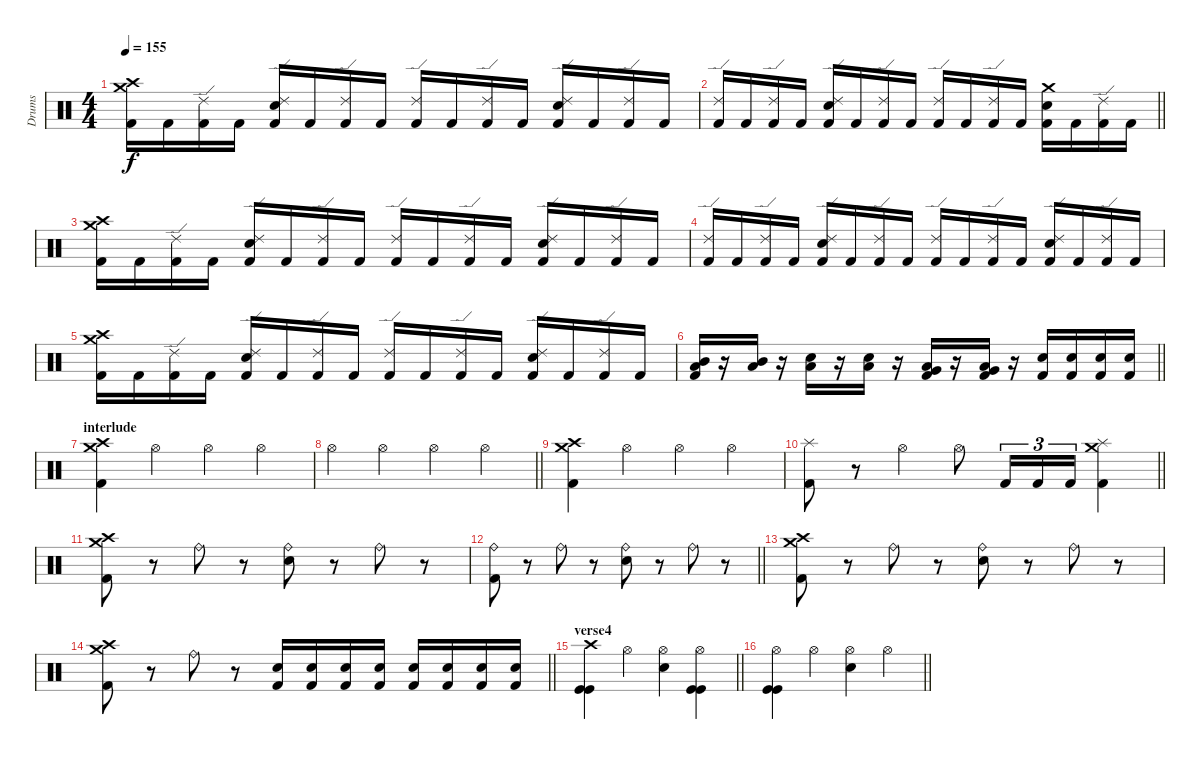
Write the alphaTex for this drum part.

\track ("Drums" "Drums") {instrument percussion}
\staff {score}
\articulation defaults
\ts (4 4)
\tempo 155
\clef neutral
\ks c
("Crash high (hit)" "Crash medium (hit)" "Kick (hit) 2").16{dy f} "Kick (hit) 2".16 ("Ride (edge) 2" "Kick (hit) 2").16 "Kick (hit) 2".16 ("Ride (edge) 2" "Electric Snare (hit)" "Kick (hit) 2").16 "Kick (hit) 2".16 ("Ride (edge) 2" "Kick (hit) 2").16 "Kick (hit) 2".16 ("Ride (edge) 2" "Kick (hit) 2").16 "Kick (hit) 2".16 ("Ride (edge) 2" "Kick (hit) 2").16 "Kick (hit) 2".16 ("Ride (edge) 2" "Electric Snare (hit)" "Kick (hit) 2").16 "Kick (hit) 2".16 ("Ride (edge) 2" "Kick (hit) 2").16 "Kick (hit) 2".16 |
\barLineRight lightlight
("Ride (edge) 2" "Kick (hit) 2").16 "Kick (hit) 2".16 ("Ride (edge) 2" "Kick (hit) 2").16 "Kick (hit) 2".16 ("Ride (edge) 2" "Electric Snare (hit)" "Kick (hit) 2").16 "Kick (hit) 2".16 ("Ride (edge) 2" "Kick (hit) 2").16 "Kick (hit) 2".16 ("Ride (edge) 2" "Kick (hit) 2").16 "Kick (hit) 2".16 ("Ride (edge) 2" "Kick (hit) 2").16 "Kick (hit) 2".16 ("Crash medium (hit)" "Electric Snare (hit)" "Kick (hit) 2").16 "Kick (hit) 2".16 ("Ride (edge) 2" "Kick (hit) 2").16 "Kick (hit) 2".16 |
("Crash high (hit)" "Crash medium (hit)" "Kick (hit) 2").16 "Kick (hit) 2".16 ("Ride (edge) 2" "Kick (hit) 2").16 "Kick (hit) 2".16 ("Ride (edge) 2" "Electric Snare (hit)" "Kick (hit) 2").16 "Kick (hit) 2".16 ("Ride (edge) 2" "Kick (hit) 2").16 "Kick (hit) 2".16 ("Ride (edge) 2" "Kick (hit) 2").16 "Kick (hit) 2".16 ("Ride (edge) 2" "Kick (hit) 2").16 "Kick (hit) 2".16 ("Ride (edge) 2" "Electric Snare (hit)" "Kick (hit) 2").16 "Kick (hit) 2".16 ("Ride (edge) 2" "Kick (hit) 2").16 "Kick (hit) 2".16 |
("Ride (edge) 2" "Kick (hit) 2").16 "Kick (hit) 2".16 ("Ride (edge) 2" "Kick (hit) 2").16 "Kick (hit) 2".16 ("Ride (edge) 2" "Electric Snare (hit)" "Kick (hit) 2").16 "Kick (hit) 2".16 ("Ride (edge) 2" "Kick (hit) 2").16 "Kick (hit) 2".16 ("Ride (edge) 2" "Kick (hit) 2").16 "Kick (hit) 2".16 ("Ride (edge) 2" "Kick (hit) 2").16 "Kick (hit) 2".16 ("Ride (edge) 2" "Electric Snare (hit)" "Kick (hit) 2").16 "Kick (hit) 2".16 ("Ride (edge) 2" "Kick (hit) 2").16 "Kick (hit) 2".16 |
("Crash high (hit)" "Crash medium (hit)" "Kick (hit) 2").16 "Kick (hit) 2".16 ("Ride (edge) 2" "Kick (hit) 2").16 "Kick (hit) 2".16 ("Ride (edge) 2" "Electric Snare (hit)" "Kick (hit) 2").16 "Kick (hit) 2".16 ("Ride (edge) 2" "Kick (hit) 2").16 "Kick (hit) 2".16 ("Ride (edge) 2" "Kick (hit) 2").16 "Kick (hit) 2".16 ("Ride (edge) 2" "Kick (hit) 2").16 "Kick (hit) 2".16 ("Ride (edge) 2" "Electric Snare (hit)" "Kick (hit) 2").16 "Kick (hit) 2".16 ("Ride (edge) 2" "Kick (hit) 2").16 "Kick (hit) 2".16 |
\barLineRight lightlight
("Mid Tom (hit)" "Low Tom (hit)" "Kick (hit) 2").16 r.16 ("Mid Tom (hit)" "Low Tom (hit)").16 r.16 ("Low Tom (hit)" "Electric Snare (hit)").16 r.16 ("Low Tom (hit)" "Electric Snare (hit)").16 r.16 ("Low Tom (hit)" "Very Low Tom (hit)" "Kick (hit) 2").16 r.16 ("Low Tom (hit)" "Very Low Tom (hit)" "Kick (hit) 2").16 r.16 ("Electric Snare (hit)" "Kick (hit) 2").16 ("Electric Snare (hit)" "Kick (hit) 2").16 ("Electric Snare (hit)" "Kick (hit) 2").16 ("Electric Snare (hit)" "Kick (hit) 2").16 |
\section ("" "interlude")
("Crash medium (hit)" "Crash high (hit)" "Kick (hit) 2").4 "Hi-Hat (open)".4 "Hi-Hat (open)".4 "Hi-Hat (open)".4 |
\barLineRight lightlight "Hi-Hat (open)".4 "Hi-Hat (open)".4 "Hi-Hat (open)".4 "Hi-Hat (open)".4
|
("Crash medium (hit)" "Crash high (hit)" "Kick (hit) 2").4 "Hi-Hat (open)".4 "Hi-Hat (open)".4 "Hi-Hat (open)".4 |
\barLineRight lightlight
("Splash (hit)" "Kick (hit) 2").8 r.8 "Hi-Hat (open)".4 "Hi-Hat (open)".8 "Kick (hit) 2".16{tu (3 2)} "Kick (hit) 2".16{tu (3 2)} "Kick (hit) 2".16{tu (3 2)} ("Kick (hit) 2" "Crash medium (hit)" "Splash (hit)").4 |
("Crash medium (hit)" "Crash high (hit)" "Kick (hit) 2").8 r.8 "Ride (bell)".8 r.8 ("Ride (bell)" "Electric Snare (hit)").8 r.8 "Ride (bell)".8 r.8 |
\barLineRight lightlight
("Ride (bell)" "Kick (hit) 2").8 r.8 "Ride (bell)".8 r.8 ("Ride (bell)" "Electric Snare (hit)").8 r.8 "Ride (bell)".8 r.8 |
("Crash medium (hit)" "Crash high (hit)" "Kick (hit) 2").8 r.8 "Ride (bell)".8 r.8 ("Ride (bell)" "Electric Snare (hit)").8 r.8 "Ride (bell)".8 r.8 |
\barLineRight lightlight
("Crash medium (hit)" "Crash high (hit)" "Kick (hit) 2").8 r.8 "Ride (bell)".8 r.8 ("Electric Snare (hit)" "Kick (hit) 2").16 ("Electric Snare (hit)" "Kick (hit) 2").16 ("Electric Snare (hit)" "Kick (hit) 2").16 ("Electric Snare (hit)" "Kick (hit) 2").16 ("Electric Snare (hit)" "Kick (hit) 2").16 ("Electric Snare (hit)" "Kick (hit) 2").16 ("Electric Snare (hit)" "Kick (hit) 2").16 ("Electric Snare (hit)" "Kick (hit) 2").16 |
\section ("" "verse4")
\barLineRight lightlight
("Crash high (hit)" "Kick (hit)" "Kick (hit)").4 "Hi-Hat (open)".4 ("Hi-Hat (open)" "Snare (hit) 2").4 ("Hi-Hat (open)" "Kick (hit)" "Kick (hit)").4 |
\barLineRight lightlight
("Hi-Hat (open)" "Kick (hit)" "Kick (hit)").4 "Hi-Hat (open)".4 ("Hi-Hat (open)" "Snare (hit) 2").4 "Hi-Hat (open)".4
